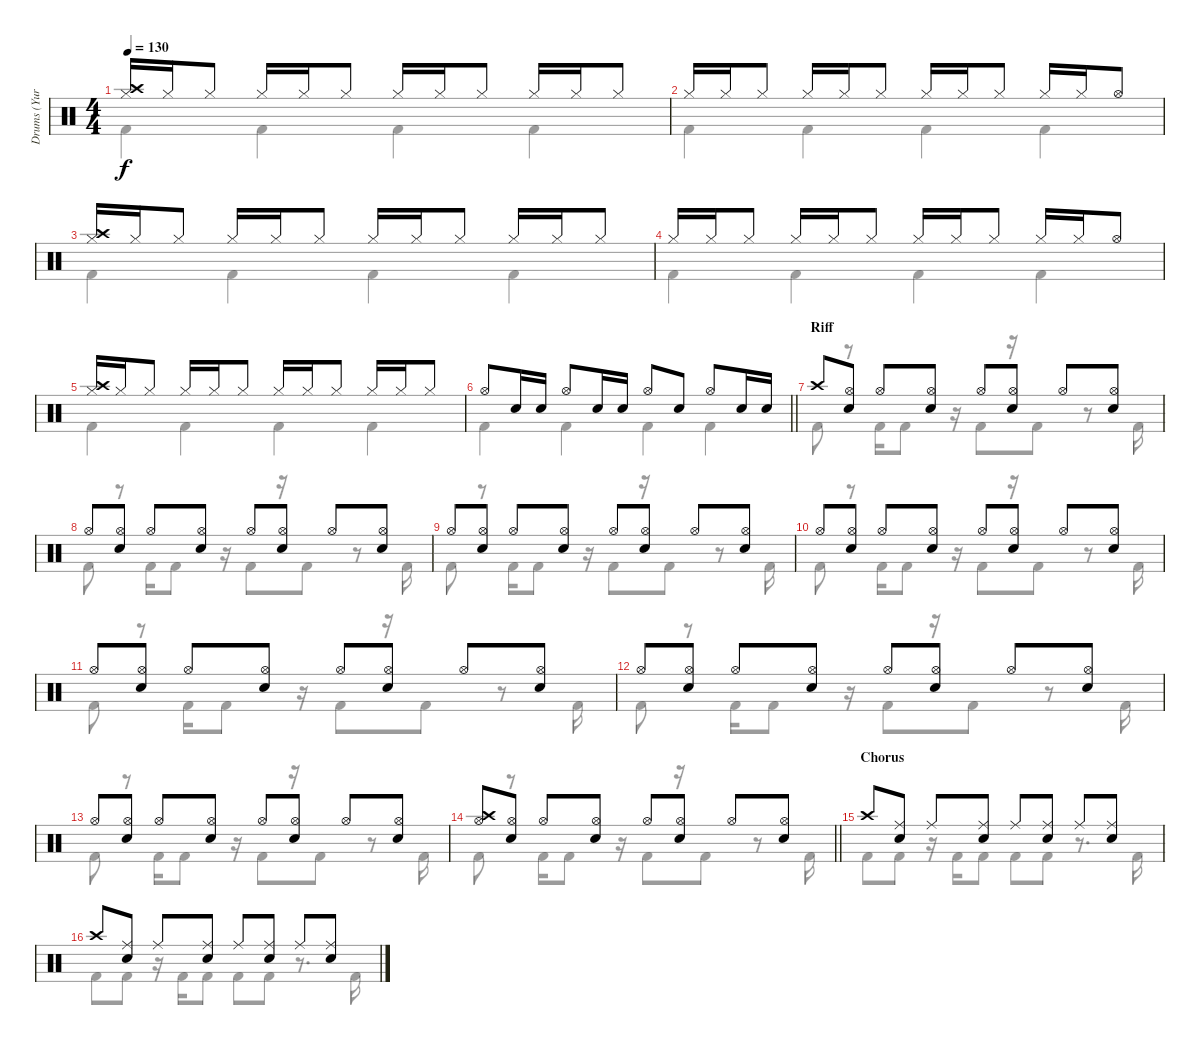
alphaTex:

\track ("Drums (Yuri)" "Drums (Yur") {instrument percussion}
\staff {score}
\articulation defaults
\voice
\ts (4 4)
\tempo 130
\clef neutral
\ks c
("Crash high (hit)" "Hi-Hat (closed)").16{dy f} "Hi-Hat (closed)".16 "Hi-Hat (closed)".8 "Hi-Hat (closed)".16 "Hi-Hat (closed)".16 "Hi-Hat (closed)".8 "Hi-Hat (closed)".16 "Hi-Hat (closed)".16 "Hi-Hat (closed)".8 "Hi-Hat (closed)".16 "Hi-Hat (closed)".16 "Hi-Hat (closed)".8 |
"Hi-Hat (closed)".16 "Hi-Hat (closed)".16 "Hi-Hat (closed)".8 "Hi-Hat (closed)".16 "Hi-Hat (closed)".16 "Hi-Hat (closed)".8 "Hi-Hat (closed)".16 "Hi-Hat (closed)".16 "Hi-Hat (closed)".8 "Hi-Hat (closed)".16 "Hi-Hat (closed)".16 "Hi-Hat (open)".8 |
("Crash high (hit)" "Hi-Hat (closed)").16 "Hi-Hat (closed)".16 "Hi-Hat (closed)".8 "Hi-Hat (closed)".16 "Hi-Hat (closed)".16 "Hi-Hat (closed)".8 "Hi-Hat (closed)".16 "Hi-Hat (closed)".16 "Hi-Hat (closed)".8 "Hi-Hat (closed)".16 "Hi-Hat (closed)".16 "Hi-Hat (closed)".8 |
"Hi-Hat (closed)".16 "Hi-Hat (closed)".16 "Hi-Hat (closed)".8 "Hi-Hat (closed)".16 "Hi-Hat (closed)".16 "Hi-Hat (closed)".8 "Hi-Hat (closed)".16 "Hi-Hat (closed)".16 "Hi-Hat (closed)".8 "Hi-Hat (closed)".16 "Hi-Hat (closed)".16 "Hi-Hat (open)".8 |
("Crash high (hit)" "Hi-Hat (closed)").16 "Hi-Hat (closed)".16 "Hi-Hat (closed)".8 "Hi-Hat (closed)".16 "Hi-Hat (closed)".16 "Hi-Hat (closed)".8 "Hi-Hat (closed)".16 "Hi-Hat (closed)".16 "Hi-Hat (closed)".8 "Hi-Hat (closed)".16 "Hi-Hat (closed)".16 "Hi-Hat (closed)".8 |
\barLineRight lightlight "Hi-Hat (open)".8 "Electric Snare (hit)".16 "Electric Snare (hit)".16 "Hi-Hat (open)".8 "Electric Snare (hit)".16 "Electric Snare (hit)".16 "Hi-Hat (open)".8 "Electric Snare (hit)".8 "Hi-Hat (open)".8 "Electric Snare (hit)".16 "Electric Snare (hit)".16
|
\section ("" "Riff")
"Crash high (hit)".8 ("Electric Snare (hit)" "Hi-Hat (open)").8 "Hi-Hat (open)".8 ("Electric Snare (hit)" "Hi-Hat (open)").8 "Hi-Hat (open)".8 ("Electric Snare (hit)" "Hi-Hat (open)").8 "Hi-Hat (open)".8 ("Electric Snare (hit)" "Hi-Hat (open)").8 |
"Hi-Hat (open)".8 ("Electric Snare (hit)" "Hi-Hat (open)").8 "Hi-Hat (open)".8 ("Electric Snare (hit)" "Hi-Hat (open)").8 "Hi-Hat (open)".8 ("Electric Snare (hit)" "Hi-Hat (open)").8 "Hi-Hat (open)".8 ("Electric Snare (hit)" "Hi-Hat (open)").8 |
"Hi-Hat (open)".8 ("Electric Snare (hit)" "Hi-Hat (open)").8 "Hi-Hat (open)".8 ("Electric Snare (hit)" "Hi-Hat (open)").8 "Hi-Hat (open)".8 ("Electric Snare (hit)" "Hi-Hat (open)").8 "Hi-Hat (open)".8 ("Electric Snare (hit)" "Hi-Hat (open)").8 |
"Hi-Hat (open)".8 ("Electric Snare (hit)" "Hi-Hat (open)").8 "Hi-Hat (open)".8 ("Electric Snare (hit)" "Hi-Hat (open)").8 "Hi-Hat (open)".8 ("Electric Snare (hit)" "Hi-Hat (open)").8 "Hi-Hat (open)".8 ("Electric Snare (hit)" "Hi-Hat (open)").8 |
"Hi-Hat (open)".8 ("Electric Snare (hit)" "Hi-Hat (open)").8 "Hi-Hat (open)".8 ("Electric Snare (hit)" "Hi-Hat (open)").8 "Hi-Hat (open)".8 ("Electric Snare (hit)" "Hi-Hat (open)").8 "Hi-Hat (open)".8 ("Electric Snare (hit)" "Hi-Hat (open)").8 |
"Hi-Hat (open)".8 ("Electric Snare (hit)" "Hi-Hat (open)").8 "Hi-Hat (open)".8 ("Electric Snare (hit)" "Hi-Hat (open)").8 "Hi-Hat (open)".8 ("Electric Snare (hit)" "Hi-Hat (open)").8 "Hi-Hat (open)".8 ("Electric Snare (hit)" "Hi-Hat (open)").8 |
"Hi-Hat (open)".8 ("Electric Snare (hit)" "Hi-Hat (open)").8 "Hi-Hat (open)".8 ("Electric Snare (hit)" "Hi-Hat (open)").8 "Hi-Hat (open)".8 ("Electric Snare (hit)" "Hi-Hat (open)").8 "Hi-Hat (open)".8 ("Electric Snare (hit)" "Hi-Hat (open)").8 |
\barLineRight lightlight
("Crash high (hit)" "Hi-Hat (open)").8 ("Electric Snare (hit)" "Hi-Hat (open)").8 "Hi-Hat (open)".8 ("Electric Snare (hit)" "Hi-Hat (open)").8 "Hi-Hat (open)".8 ("Electric Snare (hit)" "Hi-Hat (open)").8 "Hi-Hat (open)".8 ("Electric Snare (hit)" "Hi-Hat (open)").8 |
\section ("" "Chorus")
"Crash high (hit)".8 ("Ride (middle)" "Electric Snare (hit)").8 "Ride (middle)".8 ("Ride (middle)" "Electric Snare (hit)").8 "Ride (middle)".8 ("Ride (middle)" "Electric Snare (hit)").8 "Ride (middle)".8 ("Ride (middle)" "Electric Snare (hit)").8 |
"Crash high (hit)".8 ("Ride (middle)" "Electric Snare (hit)").8 "Ride (middle)".8 ("Ride (middle)" "Electric Snare (hit)").8 "Ride (middle)".8 ("Ride (middle)" "Electric Snare (hit)").8 "Ride (middle)".8 ("Ride (middle)" "Electric Snare (hit)").8
\voice
\clef neutral
\ottava regular
\simile none
\ks c "Kick (hit) 2".4{dy f} "Kick (hit) 2".4 "Kick (hit) 2".4 "Kick (hit) 2".4
|
"Kick (hit) 2".4 "Kick (hit) 2".4 "Kick (hit) 2".4 "Kick (hit) 2".4 |
"Kick (hit) 2".4 "Kick (hit) 2".4 "Kick (hit) 2".4 "Kick (hit) 2".4 |
"Kick (hit) 2".4 "Kick (hit) 2".4 "Kick (hit) 2".4 "Kick (hit) 2".4 |
"Kick (hit) 2".4 "Kick (hit) 2".4 "Kick (hit) 2".4 "Kick (hit) 2".4 |
\barLineRight lightlight "Kick (hit) 2".4 "Kick (hit) 2".4 "Kick (hit) 2".4 "Kick (hit) 2".4
|
"Kick (hit) 2".8 r.8 "Kick (hit) 2".16 "Kick (hit) 2".8 r.16 "Kick (hit) 2".8 r.16 "Kick (hit) 2".8 r.8 "Kick (hit) 2".16 |
"Kick (hit) 2".8 r.8 "Kick (hit) 2".16 "Kick (hit) 2".8 r.16 "Kick (hit) 2".8 r.16 "Kick (hit) 2".8 r.8 "Kick (hit) 2".16 |
"Kick (hit) 2".8 r.8 "Kick (hit) 2".16 "Kick (hit) 2".8 r.16 "Kick (hit) 2".8 r.16 "Kick (hit) 2".8 r.8 "Kick (hit) 2".16 |
"Kick (hit) 2".8 r.8 "Kick (hit) 2".16 "Kick (hit) 2".8 r.16 "Kick (hit) 2".8 r.16 "Kick (hit) 2".8 r.8 "Kick (hit) 2".16 |
"Kick (hit) 2".8 r.8 "Kick (hit) 2".16 "Kick (hit) 2".8 r.16 "Kick (hit) 2".8 r.16 "Kick (hit) 2".8 r.8 "Kick (hit) 2".16 |
"Kick (hit) 2".8 r.8 "Kick (hit) 2".16 "Kick (hit) 2".8 r.16 "Kick (hit) 2".8 r.16 "Kick (hit) 2".8 r.8 "Kick (hit) 2".16 |
"Kick (hit) 2".8 r.8 "Kick (hit) 2".16 "Kick (hit) 2".8 r.16 "Kick (hit) 2".8 r.16 "Kick (hit) 2".8 r.8 "Kick (hit) 2".16 |
\barLineRight lightlight "Kick (hit) 2".8
r.8 "Kick (hit) 2".16 "Kick (hit) 2".8 r.16 "Kick (hit) 2".8 r.16 "Kick (hit) 2".8 r.8 "Kick (hit) 2".16 |
"Kick (hit) 2".8 "Kick (hit) 2".8 r.16 "Kick (hit) 2".16 "Kick (hit) 2".8 "Kick (hit) 2".8 "Kick (hit) 2".8 r.8{d} "Kick (hit) 2".16 |
"Kick (hit) 2".8 "Kick (hit) 2".8 r.16 "Kick (hit) 2".16 "Kick (hit) 2".8 "Kick (hit) 2".8 "Kick (hit) 2".8 r.8{d} "Kick (hit) 2".16
